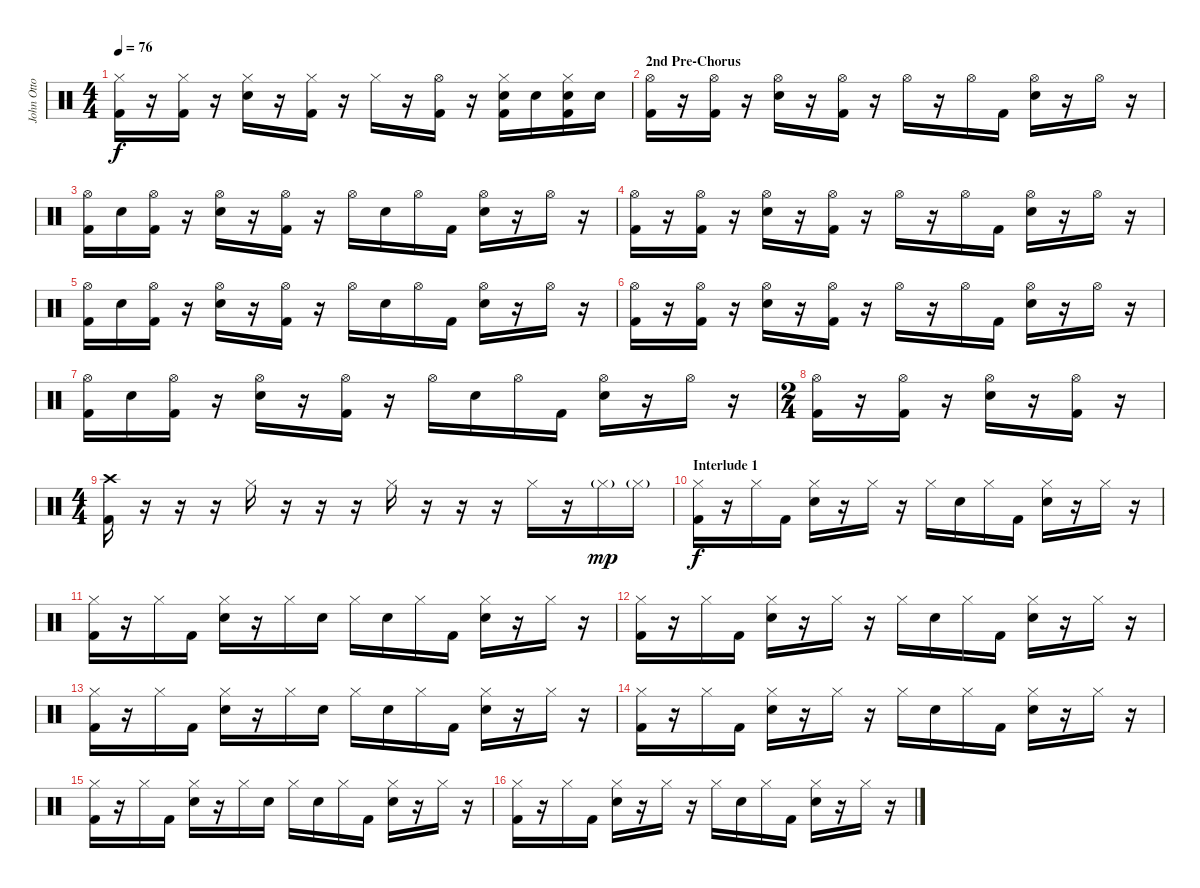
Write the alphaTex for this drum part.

\track ("John Otto" "John Otto") {instrument percussion}
\staff {score}
\articulation defaults
\ts (4 4)
\tempo 76
\clef neutral
\ks c
("Hi-Hat (closed)" "Kick (hit) 2").16{dy f} r.16 ("Hi-Hat (closed)" "Kick (hit) 2").16 r.16 ("Hi-Hat (closed)" "Snare (hit) 2").16 r.16 ("Hi-Hat (closed)" "Kick (hit) 2").16 r.16 "Hi-Hat (closed)".16 r.16 ("Hi-Hat (open)" "Kick (hit) 2").16 r.16 ("Hi-Hat (closed)" "Electric Snare (hit)" "Kick (hit) 2").16 "Electric Snare (hit)".16 ("Hi-Hat (closed)" "Snare (hit) 2" "Kick (hit) 2").16 "Snare (hit) 2".16 |
\section ("" "2nd Pre-Chorus")
("Hi-Hat (open)" "Kick (hit) 2").16 r.16 ("Hi-Hat (open)" "Kick (hit) 2").16 r.16 ("Hi-Hat (open)" "Snare (hit) 2").16 r.16 ("Hi-Hat (open)" "Kick (hit) 2").16 r.16 "Hi-Hat (open)".16 r.16 "Hi-Hat (open)".16 "Kick (hit) 2".16 ("Hi-Hat (open)" "Snare (hit) 2").16 r.16 "Hi-Hat (open)".16 r.16 |
("Hi-Hat (open)" "Kick (hit) 2").16 "Snare (hit) 2".16 ("Hi-Hat (open)" "Kick (hit) 2").16 r.16 ("Hi-Hat (open)" "Snare (hit) 2").16 r.16 ("Hi-Hat (open)" "Kick (hit) 2").16 r.16 "Hi-Hat (open)".16 "Snare (hit) 2".16 "Hi-Hat (open)".16 "Kick (hit) 2".16 ("Hi-Hat (open)" "Snare (hit) 2").16 r.16 "Hi-Hat (open)".16 r.16 |
("Hi-Hat (open)" "Kick (hit) 2").16 r.16 ("Hi-Hat (open)" "Kick (hit) 2").16 r.16 ("Hi-Hat (open)" "Snare (hit) 2").16 r.16 ("Hi-Hat (open)" "Kick (hit) 2").16 r.16 "Hi-Hat (open)".16 r.16 "Hi-Hat (open)".16 "Kick (hit) 2".16 ("Hi-Hat (open)" "Snare (hit) 2").16 r.16 "Hi-Hat (open)".16 r.16 |
("Hi-Hat (open)" "Kick (hit) 2").16 "Snare (hit) 2".16 ("Hi-Hat (open)" "Kick (hit) 2").16 r.16 ("Hi-Hat (open)" "Snare (hit) 2").16 r.16 ("Hi-Hat (open)" "Kick (hit) 2").16 r.16 "Hi-Hat (open)".16 "Snare (hit) 2".16 "Hi-Hat (open)".16 "Kick (hit) 2".16 ("Hi-Hat (open)" "Snare (hit) 2").16 r.16 "Hi-Hat (open)".16 r.16 |
("Hi-Hat (open)" "Kick (hit) 2").16 r.16 ("Hi-Hat (open)" "Kick (hit) 2").16 r.16 ("Hi-Hat (open)" "Snare (hit) 2").16 r.16 ("Hi-Hat (open)" "Kick (hit) 2").16 r.16 "Hi-Hat (open)".16 r.16 "Hi-Hat (open)".16 "Kick (hit) 2".16 ("Hi-Hat (open)" "Snare (hit) 2").16 r.16 "Hi-Hat (open)".16 r.16 |
("Hi-Hat (open)" "Kick (hit) 2").16 "Snare (hit) 2".16 ("Hi-Hat (open)" "Kick (hit) 2").16 r.16 ("Hi-Hat (open)" "Snare (hit) 2").16 r.16 ("Hi-Hat (open)" "Kick (hit) 2").16 r.16 "Hi-Hat (open)".16 "Snare (hit) 2".16 "Hi-Hat (open)".16 "Kick (hit) 2".16 ("Hi-Hat (open)" "Snare (hit) 2").16 r.16 "Hi-Hat (open)".16 r.16 |
\ts (2 4)
("Hi-Hat (open)" "Kick (hit) 2").16 r.16 ("Hi-Hat (open)" "Kick (hit) 2").16 r.16 ("Hi-Hat (open)" "Snare (hit) 2").16 r.16 ("Hi-Hat (open)" "Kick (hit) 2").16 r.16 |
\ts (4 4)
("Crash high (hit)" "Kick (hit) 2").16 r.16 r.16 r.16 "Hi-Hat (closed)".16 r.16 r.16 r.16 "Hi-Hat (closed)".16 r.16 r.16 r.16 "Hi-Hat (closed)".16 r.16 "Hi-Hat (closed)"{g}.16{dy mp} "Hi-Hat (closed)"{g}.16 |
\section ("" "Interlude 1")
("Hi-Hat (closed)" "Kick (hit) 2").16{dy f} r.16 "Hi-Hat (closed)".16 "Kick (hit) 2".16 ("Hi-Hat (closed)" "Snare (hit) 2").16 r.16 "Hi-Hat (closed)".16 r.16 "Hi-Hat (closed)".16 "Electric Snare (hit)".16 "Hi-Hat (closed)".16 "Kick (hit) 2".16 ("Hi-Hat (closed)" "Snare (hit) 2").16 r.16 "Hi-Hat (closed)".16 r.16 |
("Hi-Hat (closed)" "Kick (hit) 2").16 r.16 "Hi-Hat (closed)".16 "Kick (hit) 2".16 ("Hi-Hat (closed)" "Snare (hit) 2").16 r.16 "Hi-Hat (closed)".16 "Snare (hit) 2".16 "Hi-Hat (closed)".16 "Snare (hit) 2".16 "Hi-Hat (closed)".16 "Kick (hit) 2".16 ("Hi-Hat (closed)" "Snare (hit) 2").16 r.16 "Hi-Hat (closed)".16 r.16 |
("Hi-Hat (closed)" "Kick (hit) 2").16 r.16 "Hi-Hat (closed)".16 "Kick (hit) 2".16 ("Hi-Hat (closed)" "Snare (hit) 2").16 r.16 "Hi-Hat (closed)".16 r.16 "Hi-Hat (closed)".16 "Electric Snare (hit)".16 "Hi-Hat (closed)".16 "Kick (hit) 2".16 ("Hi-Hat (closed)" "Snare (hit) 2").16 r.16 "Hi-Hat (closed)".16 r.16 |
("Hi-Hat (closed)" "Kick (hit) 2").16 r.16 "Hi-Hat (closed)".16 "Kick (hit) 2".16 ("Hi-Hat (closed)" "Snare (hit) 2").16 r.16 "Hi-Hat (closed)".16 "Snare (hit) 2".16 "Hi-Hat (closed)".16 "Snare (hit) 2".16 "Hi-Hat (closed)".16 "Kick (hit) 2".16 ("Hi-Hat (closed)" "Snare (hit) 2").16 r.16 "Hi-Hat (closed)".16 r.16 |
("Hi-Hat (closed)" "Kick (hit) 2").16 r.16 "Hi-Hat (closed)".16 "Kick (hit) 2".16 ("Hi-Hat (closed)" "Snare (hit) 2").16 r.16 "Hi-Hat (closed)".16 r.16 "Hi-Hat (closed)".16 "Electric Snare (hit)".16 "Hi-Hat (closed)".16 "Kick (hit) 2".16 ("Hi-Hat (closed)" "Snare (hit) 2").16 r.16 "Hi-Hat (closed)".16 r.16 |
("Hi-Hat (closed)" "Kick (hit) 2").16 r.16 "Hi-Hat (closed)".16 "Kick (hit) 2".16 ("Hi-Hat (closed)" "Snare (hit) 2").16 r.16 "Hi-Hat (closed)".16 "Snare (hit) 2".16 "Hi-Hat (closed)".16 "Snare (hit) 2".16 "Hi-Hat (closed)".16 "Kick (hit) 2".16 ("Hi-Hat (closed)" "Snare (hit) 2").16 r.16 "Hi-Hat (closed)".16 r.16 |
("Hi-Hat (closed)" "Kick (hit) 2").16 r.16 "Hi-Hat (closed)".16 "Kick (hit) 2".16 ("Hi-Hat (closed)" "Snare (hit) 2").16 r.16 "Hi-Hat (closed)".16 r.16 "Hi-Hat (closed)".16 "Electric Snare (hit)".16 "Hi-Hat (closed)".16 "Kick (hit) 2".16 ("Hi-Hat (closed)" "Snare (hit) 2").16 r.16 "Hi-Hat (closed)".16 r.16
